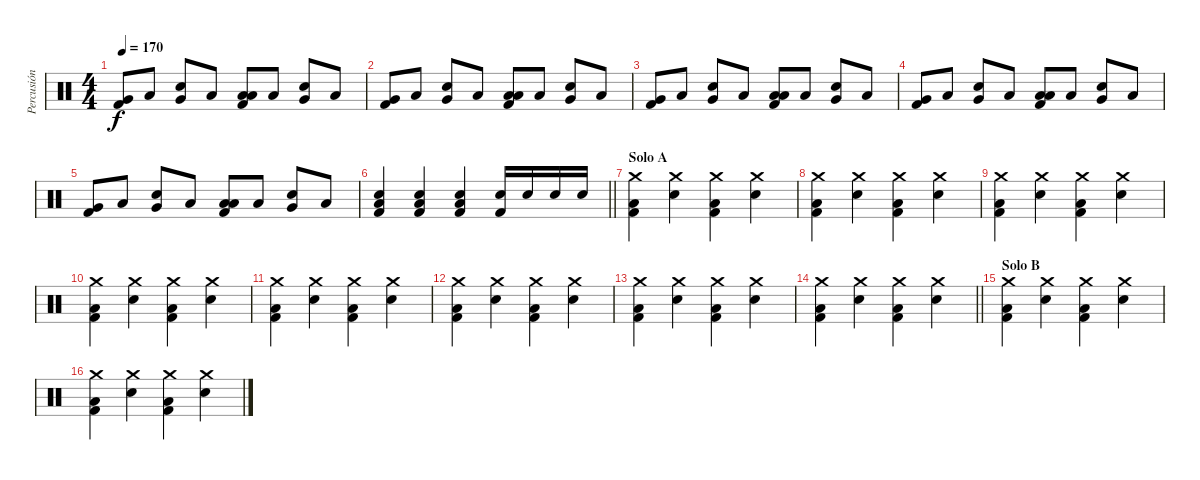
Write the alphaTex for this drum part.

\track ("Percusión" "Percusión") {instrument percussion}
\staff {score}
\articulation defaults
\ts (4 4)
\tempo 170
\clef neutral
\ks c
("Very Low Tom (hit)" "Kick (hit) 2").8{dy f} "Low Tom (hit)".8 ("Snare (hit) 2" "Very Low Tom (hit)").8 "Low Tom (hit)".8 ("Low Tom (hit)" "Low Floor Tom (hit)" "Kick (hit) 2").8 "Low Tom (hit)".8 ("Snare (hit) 2" "Very Low Tom (hit)").8 "Low Tom (hit)".8 |
("Very Low Tom (hit)" "Kick (hit) 2").8 "Low Tom (hit)".8 ("Snare (hit) 2" "Very Low Tom (hit)").8 "Low Tom (hit)".8 ("Low Tom (hit)" "Low Floor Tom (hit)" "Kick (hit) 2").8 "Low Tom (hit)".8 ("Snare (hit) 2" "Very Low Tom (hit)").8 "Low Tom (hit)".8 |
("Very Low Tom (hit)" "Kick (hit) 2").8 "Low Tom (hit)".8 ("Snare (hit) 2" "Very Low Tom (hit)").8 "Low Tom (hit)".8 ("Low Tom (hit)" "Low Floor Tom (hit)" "Kick (hit) 2").8 "Low Tom (hit)".8 ("Snare (hit) 2" "Very Low Tom (hit)").8 "Low Tom (hit)".8 |
("Very Low Tom (hit)" "Kick (hit) 2").8 "Low Tom (hit)".8 ("Snare (hit) 2" "Very Low Tom (hit)").8 "Low Tom (hit)".8 ("Low Tom (hit)" "Low Floor Tom (hit)" "Kick (hit) 2").8 "Low Tom (hit)".8 ("Snare (hit) 2" "Very Low Tom (hit)").8 "Low Tom (hit)".8 |
("Very Low Tom (hit)" "Kick (hit) 2").8 "Low Tom (hit)".8 ("Snare (hit) 2" "Very Low Tom (hit)").8 "Low Tom (hit)".8 ("Low Tom (hit)" "Low Floor Tom (hit)" "Kick (hit) 2").8 "Low Tom (hit)".8 ("Snare (hit) 2" "Very Low Tom (hit)").8 "Low Tom (hit)".8 |
\barLineRight lightlight
("Electric Snare (hit)" "Low Floor Tom (hit)" "Kick (hit) 2").4 ("Electric Snare (hit)" "Low Floor Tom (hit)" "Kick (hit) 2").4 ("Electric Snare (hit)" "Low Floor Tom (hit)" "Kick (hit) 2").4 ("Electric Snare (hit)" "Kick (hit) 2").16 "Electric Snare (hit)".16 "Electric Snare (hit)".16 "Electric Snare (hit)".16 |
\section ("" "Solo A")
("Crash medium (hit)" "Low Floor Tom (hit)" "Kick (hit) 2").4 ("Crash medium (hit)" "Snare (hit) 2").4 ("Crash medium (hit)" "Low Floor Tom (hit)" "Kick (hit) 2").4 ("Crash medium (hit)" "Snare (hit) 2").4 |
("Crash medium (hit)" "Low Floor Tom (hit)" "Kick (hit) 2").4 ("Crash medium (hit)" "Snare (hit) 2").4 ("Crash medium (hit)" "Low Floor Tom (hit)" "Kick (hit) 2").4 ("Crash medium (hit)" "Snare (hit) 2").4 |
("Crash medium (hit)" "Low Floor Tom (hit)" "Kick (hit) 2").4 ("Crash medium (hit)" "Snare (hit) 2").4 ("Crash medium (hit)" "Low Floor Tom (hit)" "Kick (hit) 2").4 ("Crash medium (hit)" "Snare (hit) 2").4 |
("Crash medium (hit)" "Low Floor Tom (hit)" "Kick (hit) 2").4 ("Crash medium (hit)" "Snare (hit) 2").4 ("Crash medium (hit)" "Low Floor Tom (hit)" "Kick (hit) 2").4 ("Crash medium (hit)" "Snare (hit) 2").4 |
("Crash medium (hit)" "Low Floor Tom (hit)" "Kick (hit) 2").4 ("Crash medium (hit)" "Snare (hit) 2").4 ("Crash medium (hit)" "Low Floor Tom (hit)" "Kick (hit) 2").4 ("Crash medium (hit)" "Snare (hit) 2").4 |
("Crash medium (hit)" "Low Floor Tom (hit)" "Kick (hit) 2").4 ("Crash medium (hit)" "Snare (hit) 2").4 ("Crash medium (hit)" "Low Floor Tom (hit)" "Kick (hit) 2").4 ("Crash medium (hit)" "Snare (hit) 2").4 |
("Crash medium (hit)" "Low Floor Tom (hit)" "Kick (hit) 2").4 ("Crash medium (hit)" "Snare (hit) 2").4 ("Crash medium (hit)" "Low Floor Tom (hit)" "Kick (hit) 2").4 ("Crash medium (hit)" "Snare (hit) 2").4 |
\barLineRight lightlight
("Crash medium (hit)" "Low Floor Tom (hit)" "Kick (hit) 2").4 ("Crash medium (hit)" "Snare (hit) 2").4 ("Crash medium (hit)" "Low Floor Tom (hit)" "Kick (hit) 2").4 ("Crash medium (hit)" "Snare (hit) 2").4 |
\section ("" "Solo B")
("Crash medium (hit)" "Low Floor Tom (hit)" "Kick (hit) 2").4 ("Crash medium (hit)" "Snare (hit) 2").4 ("Crash medium (hit)" "Low Floor Tom (hit)" "Kick (hit) 2").4 ("Crash medium (hit)" "Snare (hit) 2").4 |
("Crash medium (hit)" "Low Floor Tom (hit)" "Kick (hit) 2").4 ("Crash medium (hit)" "Snare (hit) 2").4 ("Crash medium (hit)" "Low Floor Tom (hit)" "Kick (hit) 2").4 ("Crash medium (hit)" "Snare (hit) 2").4
